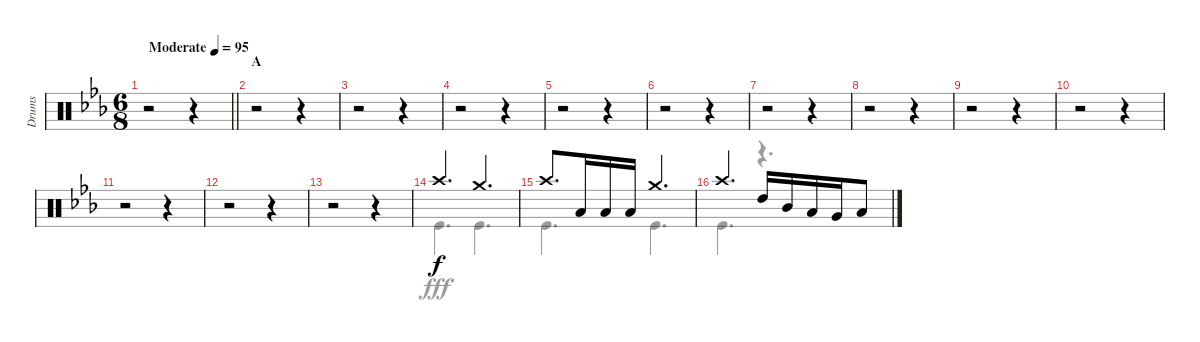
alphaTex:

\track ("Drums" "Drums") {instrument percussion}
\staff {score}
\articulation defaults
\voice
\ts (6 8)
\tempo (95 "Moderate")
\clef neutral
\barLineRight lightlight
\ks eb
r.2{dy f} r.4 |
\section ("" "A")
r.2 r.4 |
r.2 r.4 |
r.2 r.4 |
r.2 r.4 |
r.2 r.4 |
r.2 r.4 |
r.2 r.4 |
r.2 r.4 |
r.2 r.4 |
r.2 r.4 |
r.2 r.4 |
r.2 r.4 |
"Crash high (hit)".4{d} "Crash medium (hit)".4{d} |
"Crash high (hit)".8{d} "Low Tom (hit)".16 "Low Tom (hit)".16 "Low Tom (hit)".16 "Crash medium (hit)".4{d} |
"Crash high (hit)".4{d} "High Tom (hit)".16 "Mid Tom (hit)".16 "Low Tom (hit)".16 "Very Low Tom (hit)".16 "Low Floor Tom (hit)".8
\voice
\clef neutral
\ottava regular
\simile none
\barLineRight lightlight
\ks eb
r.2{dy fff} r.4 |
r.2 r.4 |
r.2 r.4 |
r.2 r.4 |
r.2 r.4 |
r.2 r.4 |
r.2 r.4 |
r.2 r.4 |
r.2 r.4 |
r.2 r.4 |
r.2 r.4 |
r.2 r.4 |
r.2 r.4 |
"Kick (hit)".4{d} "Kick (hit)".4{d} |
"Kick (hit)".4{d} "Kick (hit)".4{d} |
"Kick (hit)".4{d} r.4{d}
